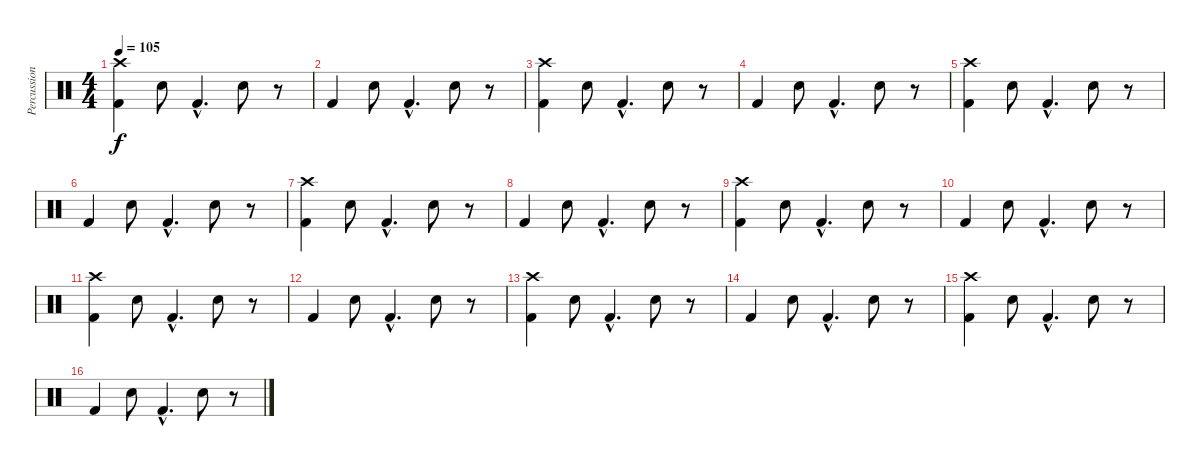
\track ("Percussion" "Percussion") {instrument percussion}
\staff {score}
\articulation defaults
\ts (4 4)
\tempo 105
\clef neutral
\ks c
("Crash high (hit)" "Kick (hit) 2").4{dy f} "Hand Clap (hit)".8 "Kick (hit) 2"{hac}.4{d} "Hand Clap (hit)".8 r.8 |
"Kick (hit) 2".4 "Hand Clap (hit)".8 "Kick (hit) 2"{hac}.4{d} "Hand Clap (hit)".8 r.8 |
("Crash high (hit)" "Kick (hit) 2").4 "Hand Clap (hit)".8 "Kick (hit) 2"{hac}.4{d} "Hand Clap (hit)".8 r.8 |
"Kick (hit) 2".4 "Hand Clap (hit)".8 "Kick (hit) 2"{hac}.4{d} "Hand Clap (hit)".8 r.8 |
("Crash high (hit)" "Kick (hit) 2").4 "Hand Clap (hit)".8 "Kick (hit) 2"{hac}.4{d} "Hand Clap (hit)".8 r.8 |
"Kick (hit) 2".4 "Hand Clap (hit)".8 "Kick (hit) 2"{hac}.4{d} "Hand Clap (hit)".8 r.8 |
("Crash high (hit)" "Kick (hit) 2").4 "Hand Clap (hit)".8 "Kick (hit) 2"{hac}.4{d} "Hand Clap (hit)".8 r.8 |
"Kick (hit) 2".4 "Hand Clap (hit)".8 "Kick (hit) 2"{hac}.4{d} "Hand Clap (hit)".8 r.8 |
("Crash high (hit)" "Kick (hit) 2").4 "Hand Clap (hit)".8 "Kick (hit) 2"{hac}.4{d} "Hand Clap (hit)".8 r.8 |
"Kick (hit) 2".4 "Hand Clap (hit)".8 "Kick (hit) 2"{hac}.4{d} "Hand Clap (hit)".8 r.8 |
("Crash high (hit)" "Kick (hit) 2").4 "Hand Clap (hit)".8 "Kick (hit) 2"{hac}.4{d} "Hand Clap (hit)".8 r.8 |
"Kick (hit) 2".4 "Hand Clap (hit)".8 "Kick (hit) 2"{hac}.4{d} "Hand Clap (hit)".8 r.8 |
("Crash high (hit)" "Kick (hit) 2").4 "Hand Clap (hit)".8 "Kick (hit) 2"{hac}.4{d} "Hand Clap (hit)".8 r.8 |
"Kick (hit) 2".4 "Hand Clap (hit)".8 "Kick (hit) 2"{hac}.4{d} "Hand Clap (hit)".8 r.8 |
("Crash high (hit)" "Kick (hit) 2").4 "Hand Clap (hit)".8 "Kick (hit) 2"{hac}.4{d} "Hand Clap (hit)".8 r.8 |
"Kick (hit) 2".4 "Hand Clap (hit)".8 "Kick (hit) 2"{hac}.4{d} "Hand Clap (hit)".8 r.8
